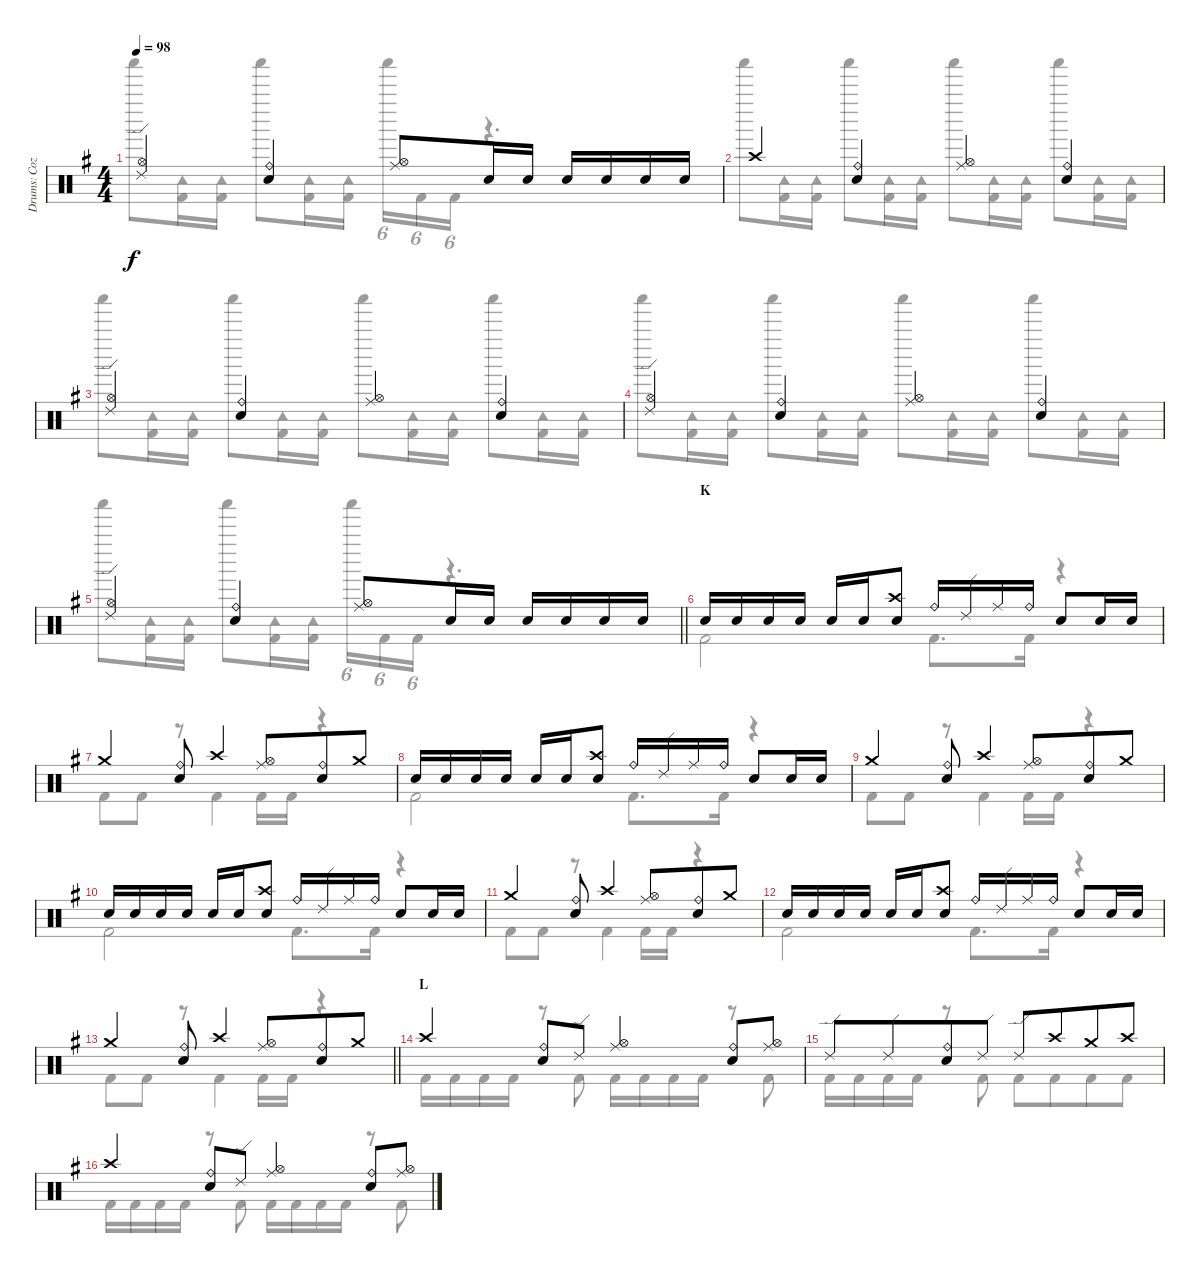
\track ("Drums: Cozy" "Drums: Coz") {instrument percussion}
\staff {score}
\articulation defaults
\voice
\ts (4 4)
\tempo 98
\clef neutral
\ks g
("Ride (edge) 2" "Hi-Hat (open)").4{dy f} ("Ride (bell)" "Snare (hit) 2").4 ("Ride (middle)" "Hi-Hat (open)").8 "Snare (hit) 2".16{beam merge} "Snare (hit) 2".16 "Snare (hit) 2".16 "Snare (hit) 2".16{beam merge} "Snare (hit) 2".16 "Snare (hit) 2".16 |
"Crash high (hit)".4 ("Ride (bell)" "Snare (hit) 2").4 ("Ride (middle)" "Hi-Hat (open)").4 ("Ride (bell)" "Snare (hit) 2").4 |
("Ride (edge) 2" "Hi-Hat (open)").4 ("Ride (bell)" "Snare (hit) 2").4 ("Ride (middle)" "Hi-Hat (open)").4 ("Ride (bell)" "Snare (hit) 2").4 |
("Ride (edge) 2" "Hi-Hat (open)").4 ("Ride (bell)" "Snare (hit) 2").4 ("Ride (middle)" "Hi-Hat (open)").4 ("Ride (bell)" "Snare (hit) 2").4 |
\barLineRight lightlight
("Ride (edge) 2" "Hi-Hat (open)").4 ("Ride (bell)" "Snare (hit) 2").4 ("Ride (middle)" "Hi-Hat (open)").8 "Snare (hit) 2".16{beam merge} "Snare (hit) 2".16 "Snare (hit) 2".16 "Snare (hit) 2".16{beam merge} "Snare (hit) 2".16 "Snare (hit) 2".16 |
\section ("" "K")
"Snare (hit) 2".16 "Snare (hit) 2".16 "Snare (hit) 2".16 "Snare (hit) 2".16 "Snare (hit) 2".16 "Snare (hit) 2".16 ("Crash high (hit)" "Snare (hit) 2").8 "Ride (bell)".16 "Ride (edge) 2".16 "Ride (middle)".16 "Ride (bell)".16 "Snare (hit) 2".8 "Snare (hit) 2".16 "Snare (hit) 2".16 |
"Crash medium (hit)".4 ("Ride (bell)" "Snare (hit) 2").8 "Crash high (hit)".4 ("Ride (middle)" "Hi-Hat (open)").8{beam merge} ("Ride (bell)" "Snare (hit) 2").8 "Crash medium (hit)".8 |
"Snare (hit) 2".16 "Snare (hit) 2".16 "Snare (hit) 2".16 "Snare (hit) 2".16 "Snare (hit) 2".16 "Snare (hit) 2".16 ("Crash high (hit)" "Snare (hit) 2").8 "Ride (bell)".16 "Ride (edge) 2".16 "Ride (middle)".16 "Ride (bell)".16 "Snare (hit) 2".8 "Snare (hit) 2".16 "Snare (hit) 2".16 |
"Crash medium (hit)".4 ("Ride (bell)" "Snare (hit) 2").8 "Crash high (hit)".4 ("Ride (middle)" "Hi-Hat (open)").8{beam merge} ("Ride (bell)" "Snare (hit) 2").8 "Crash medium (hit)".8 |
"Snare (hit) 2".16 "Snare (hit) 2".16 "Snare (hit) 2".16 "Snare (hit) 2".16 "Snare (hit) 2".16 "Snare (hit) 2".16 ("Crash high (hit)" "Snare (hit) 2").8 "Ride (bell)".16 "Ride (edge) 2".16 "Ride (middle)".16 "Ride (bell)".16 "Snare (hit) 2".8 "Snare (hit) 2".16 "Snare (hit) 2".16 |
"Crash medium (hit)".4 ("Ride (bell)" "Snare (hit) 2").8 "Crash high (hit)".4 ("Ride (middle)" "Hi-Hat (open)").8{beam merge} ("Ride (bell)" "Snare (hit) 2").8 "Crash medium (hit)".8 |
"Snare (hit) 2".16 "Snare (hit) 2".16 "Snare (hit) 2".16 "Snare (hit) 2".16 "Snare (hit) 2".16 "Snare (hit) 2".16 ("Crash high (hit)" "Snare (hit) 2").8 "Ride (bell)".16 "Ride (edge) 2".16 "Ride (middle)".16 "Ride (bell)".16 "Snare (hit) 2".8 "Snare (hit) 2".16 "Snare (hit) 2".16 |
\barLineRight lightlight "Crash medium (hit)".4
("Ride (bell)" "Snare (hit) 2").8 "Crash high (hit)".4 ("Ride (middle)" "Hi-Hat (open)").8{beam merge} ("Ride (bell)" "Snare (hit) 2").8 "Crash medium (hit)".8 |
\section ("" "L")
"Crash high (hit)".4 ("Ride (bell)" "Snare (hit) 2").8 "Ride (edge) 2".8 ("Ride (middle)" "Hi-Hat (open)").4 ("Ride (bell)" "Snare (hit) 2").8 ("Ride (middle)" "Hi-Hat (open)").8 |
"Ride (edge) 2".8 "Ride (edge) 2".8{beam merge} ("Ride (bell)" "Snare (hit) 2").8 "Ride (edge) 2".8 "Ride (edge) 2".8 "Crash high (hit)".8{beam merge} "Crash medium (hit)".8 "Crash high (hit)".8 |
"Crash high (hit)".4 ("Ride (bell)" "Snare (hit) 2").8 "Ride (edge) 2".8 ("Ride (middle)" "Hi-Hat (open)").4 ("Ride (bell)" "Snare (hit) 2").8 ("Ride (middle)" "Hi-Hat (open)").8
\voice
\clef neutral
\ottava regular
\simile none
\ks g "Shaker (hit)".8{dy f}
("Tambourine (hit)" "Kick (hit) 2").16 ("Tambourine (hit)" "Kick (hit) 2").16 "Shaker (hit)".8 ("Tambourine (hit)" "Kick (hit) 2").16 ("Tambourine (hit)" "Kick (hit) 2").16 "Shaker (hit)".16{tu (6 4)} "Kick (hit) 2".16{tu (6 4)} "Kick (hit) 2".16{tu (6 4)} r.4{d} |
"Shaker (hit)".8 ("Tambourine (hit)" "Kick (hit) 2").16 ("Tambourine (hit)" "Kick (hit) 2").16 "Shaker (hit)".8 ("Tambourine (hit)" "Kick (hit) 2").16 ("Tambourine (hit)" "Kick (hit) 2").16 "Shaker (hit)".8 ("Tambourine (hit)" "Kick (hit) 2").16 ("Tambourine (hit)" "Kick (hit) 2").16 "Shaker (hit)".8 ("Tambourine (hit)" "Kick (hit) 2").16 ("Tambourine (hit)" "Kick (hit) 2").16 |
"Shaker (hit)".8 ("Tambourine (hit)" "Kick (hit) 2").16 ("Tambourine (hit)" "Kick (hit) 2").16 "Shaker (hit)".8 ("Tambourine (hit)" "Kick (hit) 2").16 ("Tambourine (hit)" "Kick (hit) 2").16 "Shaker (hit)".8 ("Tambourine (hit)" "Kick (hit) 2").16 ("Tambourine (hit)" "Kick (hit) 2").16 "Shaker (hit)".8 ("Tambourine (hit)" "Kick (hit) 2").16 ("Tambourine (hit)" "Kick (hit) 2").16 |
"Shaker (hit)".8 ("Tambourine (hit)" "Kick (hit) 2").16 ("Tambourine (hit)" "Kick (hit) 2").16 "Shaker (hit)".8 ("Tambourine (hit)" "Kick (hit) 2").16 ("Tambourine (hit)" "Kick (hit) 2").16 "Shaker (hit)".8 ("Tambourine (hit)" "Kick (hit) 2").16 ("Tambourine (hit)" "Kick (hit) 2").16 "Shaker (hit)".8 ("Tambourine (hit)" "Kick (hit) 2").16 ("Tambourine (hit)" "Kick (hit) 2").16 |
\barLineRight lightlight "Shaker (hit)".8
("Tambourine (hit)" "Kick (hit) 2").16 ("Tambourine (hit)" "Kick (hit) 2").16 "Shaker (hit)".8 ("Tambourine (hit)" "Kick (hit) 2").16 ("Tambourine (hit)" "Kick (hit) 2").16 "Shaker (hit)".16{tu (6 4)} "Kick (hit) 2".16{tu (6 4)} "Kick (hit) 2".16{tu (6 4)} r.4{d} |
"Kick (hit) 2".2 "Kick (hit) 2".8{d} "Kick (hit) 2".16 r.4 |
"Kick (hit) 2".8 "Kick (hit) 2".8 r.8 "Kick (hit) 2".4 "Kick (hit) 2".16 "Kick (hit) 2".16 r.4 |
"Kick (hit) 2".2 "Kick (hit) 2".8{d} "Kick (hit) 2".16 r.4 |
"Kick (hit) 2".8 "Kick (hit) 2".8 r.8 "Kick (hit) 2".4 "Kick (hit) 2".16 "Kick (hit) 2".16 r.4 |
"Kick (hit) 2".2 "Kick (hit) 2".8{d} "Kick (hit) 2".16 r.4 |
"Kick (hit) 2".8 "Kick (hit) 2".8 r.8 "Kick (hit) 2".4 "Kick (hit) 2".16 "Kick (hit) 2".16 r.4 |
"Kick (hit) 2".2 "Kick (hit) 2".8{d} "Kick (hit) 2".16 r.4 |
\barLineRight lightlight "Kick (hit) 2".8 "Kick (hit) 2".8
r.8 "Kick (hit) 2".4 "Kick (hit) 2".16 "Kick (hit) 2".16 r.4 |
"Kick (hit) 2".16 "Kick (hit) 2".16 "Kick (hit) 2".16 "Kick (hit) 2".16 r.8 "Kick (hit) 2".8 "Kick (hit) 2".16 "Kick (hit) 2".16 "Kick (hit) 2".16 "Kick (hit) 2".16 r.8 "Kick (hit) 2".8 |
"Kick (hit) 2".16 "Kick (hit) 2".16 "Kick (hit) 2".16 "Kick (hit) 2".16 r.8{beam merge} "Kick (hit) 2".8 "Kick (hit) 2".8 "Kick (hit) 2".8{beam merge} "Kick (hit) 2".8 "Kick (hit) 2".8 |
"Kick (hit) 2".16 "Kick (hit) 2".16 "Kick (hit) 2".16 "Kick (hit) 2".16 r.8 "Kick (hit) 2".8 "Kick (hit) 2".16 "Kick (hit) 2".16 "Kick (hit) 2".16 "Kick (hit) 2".16 r.8 "Kick (hit) 2".8
